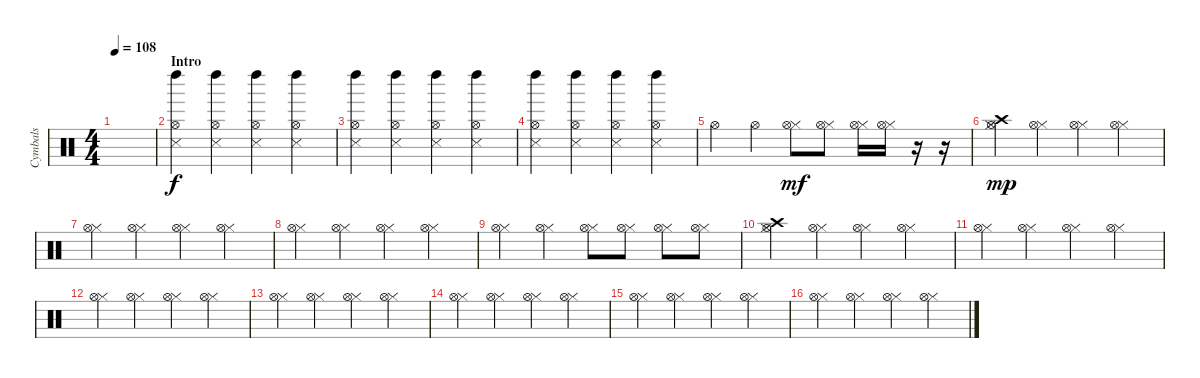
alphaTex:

\track ("Cymbals" "Cymbals") {instrument percussion}
\staff {score}
\articulation defaults
\ts (4 4)
\tempo 108
\clef neutral
\ks c
|
\section ("" "Intro")
("Hi-Hat (open)" "Left Maraca (hit)" "Snare (side stick) 3").4 ("Hi-Hat (open)" "Left Maraca (hit)" "Snare (side stick) 3").4 ("Hi-Hat (open)" "Left Maraca (hit)" "Snare (side stick) 3").4 ("Hi-Hat (open)" "Left Maraca (hit)" "Snare (side stick) 3").4 |
("Hi-Hat (open)" "Left Maraca (hit)" "Snare (side stick) 3").4 ("Hi-Hat (open)" "Left Maraca (hit)" "Snare (side stick) 3").4 ("Hi-Hat (open)" "Left Maraca (hit)" "Snare (side stick) 3").4 ("Hi-Hat (open)" "Left Maraca (hit)" "Snare (side stick) 3").4 |
("Hi-Hat (open)" "Left Maraca (hit)" "Snare (side stick) 3").4 ("Hi-Hat (open)" "Left Maraca (hit)" "Snare (side stick) 3").4 ("Hi-Hat (open)" "Left Maraca (hit)" "Snare (side stick) 3").4 ("Hi-Hat (open)" "Left Maraca (hit)" "Snare (side stick) 3").4 |
"Hi-Hat (open)".4{dy f} "Hi-Hat (open)".4 ("Hi-Hat (closed)" "Hi-Hat (open)").8{dy mf} ("Hi-Hat (closed)" "Hi-Hat (open)").8 ("Hi-Hat (closed)" "Hi-Hat (open)").16 ("Hi-Hat (closed)" "Hi-Hat (open)").16 r.16 r.16 |
("Crash high (hit)" "Hi-Hat (closed)" "Hi-Hat (open)").4{dy mp} ("Hi-Hat (closed)" "Hi-Hat (open)").4 ("Hi-Hat (closed)" "Hi-Hat (open)").4 ("Hi-Hat (closed)" "Hi-Hat (open)").4 |
("Hi-Hat (closed)" "Hi-Hat (open)").4 ("Hi-Hat (closed)" "Hi-Hat (open)").4 ("Hi-Hat (closed)" "Hi-Hat (open)").4 ("Hi-Hat (closed)" "Hi-Hat (open)").4 |
("Hi-Hat (closed)" "Hi-Hat (open)").4 ("Hi-Hat (closed)" "Hi-Hat (open)").4 ("Hi-Hat (closed)" "Hi-Hat (open)").4 ("Hi-Hat (closed)" "Hi-Hat (open)").4 |
("Hi-Hat (closed)" "Hi-Hat (open)").4 ("Hi-Hat (closed)" "Hi-Hat (open)").4 ("Hi-Hat (closed)" "Hi-Hat (open)").8 ("Hi-Hat (closed)" "Hi-Hat (open)").8 ("Hi-Hat (closed)" "Hi-Hat (open)").8 ("Hi-Hat (closed)" "Hi-Hat (open)").8 |
("Crash high (hit)" "Hi-Hat (closed)" "Hi-Hat (open)").4 ("Hi-Hat (closed)" "Hi-Hat (open)").4 ("Hi-Hat (closed)" "Hi-Hat (open)").4 ("Hi-Hat (closed)" "Hi-Hat (open)").4 |
("Hi-Hat (closed)" "Hi-Hat (open)").4 ("Hi-Hat (closed)" "Hi-Hat (open)").4 ("Hi-Hat (closed)" "Hi-Hat (open)").4 ("Hi-Hat (closed)" "Hi-Hat (open)").4 |
("Hi-Hat (closed)" "Hi-Hat (open)").4 ("Hi-Hat (closed)" "Hi-Hat (open)").4 ("Hi-Hat (closed)" "Hi-Hat (open)").4 ("Hi-Hat (closed)" "Hi-Hat (open)").4 |
("Hi-Hat (closed)" "Hi-Hat (open)").4 ("Hi-Hat (closed)" "Hi-Hat (open)").4 ("Hi-Hat (closed)" "Hi-Hat (open)").4 ("Hi-Hat (closed)" "Hi-Hat (open)").4 |
("Hi-Hat (closed)" "Hi-Hat (open)").4 ("Hi-Hat (closed)" "Hi-Hat (open)").4 ("Hi-Hat (closed)" "Hi-Hat (open)").4 ("Hi-Hat (closed)" "Hi-Hat (open)").4 |
("Hi-Hat (closed)" "Hi-Hat (open)").4 ("Hi-Hat (closed)" "Hi-Hat (open)").4 ("Hi-Hat (closed)" "Hi-Hat (open)").4 ("Hi-Hat (closed)" "Hi-Hat (open)").4 |
("Hi-Hat (closed)" "Hi-Hat (open)").4 ("Hi-Hat (closed)" "Hi-Hat (open)").4 ("Hi-Hat (closed)" "Hi-Hat (open)").4 ("Hi-Hat (closed)" "Hi-Hat (open)").4
